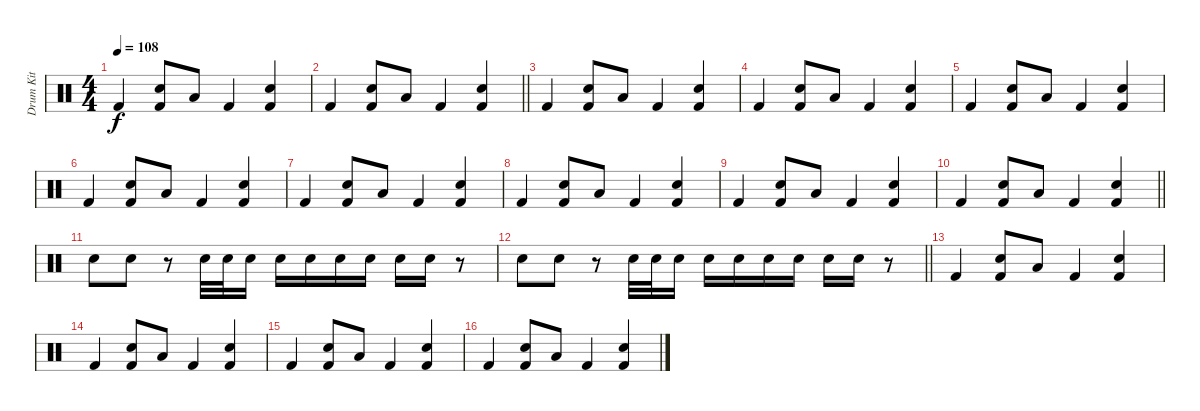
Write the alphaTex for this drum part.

\track ("Drum Kit" "Drum Kit") {instrument percussion}
\staff {score}
\articulation defaults
\ts (4 4)
\tempo 108
\clef neutral
\ks c "Kick (hit) 2".4{dy f}
("Electric Snare (hit)" "Kick (hit) 2").8 "Low Floor Tom (hit)".8 "Kick (hit) 2".4 ("Electric Snare (hit)" "Kick (hit) 2").4 |
\barLineRight lightlight "Kick (hit) 2".4
("Electric Snare (hit)" "Kick (hit) 2").8 "Low Floor Tom (hit)".8 "Kick (hit) 2".4 ("Electric Snare (hit)" "Kick (hit) 2").4 |
\section ("" "")
"Kick (hit) 2".4 ("Electric Snare (hit)" "Kick (hit) 2").8 "Low Floor Tom (hit)".8 "Kick (hit) 2".4 ("Electric Snare (hit)" "Kick (hit) 2").4 |
"Kick (hit) 2".4 ("Electric Snare (hit)" "Kick (hit) 2").8 "Low Floor Tom (hit)".8 "Kick (hit) 2".4 ("Electric Snare (hit)" "Kick (hit) 2").4 |
"Kick (hit) 2".4 ("Electric Snare (hit)" "Kick (hit) 2").8 "Low Floor Tom (hit)".8 "Kick (hit) 2".4 ("Electric Snare (hit)" "Kick (hit) 2").4 |
"Kick (hit) 2".4 ("Electric Snare (hit)" "Kick (hit) 2").8 "Low Floor Tom (hit)".8 "Kick (hit) 2".4 ("Electric Snare (hit)" "Kick (hit) 2").4 |
"Kick (hit) 2".4 ("Electric Snare (hit)" "Kick (hit) 2").8 "Low Floor Tom (hit)".8 "Kick (hit) 2".4 ("Electric Snare (hit)" "Kick (hit) 2").4 |
"Kick (hit) 2".4 ("Electric Snare (hit)" "Kick (hit) 2").8 "Low Floor Tom (hit)".8 "Kick (hit) 2".4 ("Electric Snare (hit)" "Kick (hit) 2").4 |
"Kick (hit) 2".4 ("Electric Snare (hit)" "Kick (hit) 2").8 "Low Floor Tom (hit)".8 "Kick (hit) 2".4 ("Electric Snare (hit)" "Kick (hit) 2").4 |
\barLineRight lightlight "Kick (hit) 2".4
("Electric Snare (hit)" "Kick (hit) 2").8 "Low Floor Tom (hit)".8 "Kick (hit) 2".4 ("Electric Snare (hit)" "Kick (hit) 2").4 |
\section ("" "")
"Snare (hit) 2".8 "Snare (hit) 2".8 r.8 "Electric Snare (hit)".32 "Electric Snare (hit)".32 "Electric Snare (hit)".16 "Electric Snare (hit)".16 "Electric Snare (hit)".16 "Electric Snare (hit)".16 "Electric Snare (hit)".16 "Electric Snare (hit)".16 "Electric Snare (hit)".16 r.8 |
\barLineRight lightlight "Snare (hit) 2".8 "Snare (hit) 2".8
r.8 "Electric Snare (hit)".32 "Electric Snare (hit)".32 "Electric Snare (hit)".16 "Electric Snare (hit)".16 "Electric Snare (hit)".16 "Electric Snare (hit)".16 "Electric Snare (hit)".16 "Electric Snare (hit)".16 "Electric Snare (hit)".16 r.8 |
\section ("" "")
"Kick (hit) 2".4 ("Electric Snare (hit)" "Kick (hit) 2").8 "Low Floor Tom (hit)".8 "Kick (hit) 2".4 ("Electric Snare (hit)" "Kick (hit) 2").4 |
"Kick (hit) 2".4 ("Electric Snare (hit)" "Kick (hit) 2").8 "Low Floor Tom (hit)".8 "Kick (hit) 2".4 ("Electric Snare (hit)" "Kick (hit) 2").4 |
"Kick (hit) 2".4 ("Electric Snare (hit)" "Kick (hit) 2").8 "Low Floor Tom (hit)".8 "Kick (hit) 2".4 ("Electric Snare (hit)" "Kick (hit) 2").4 |
"Kick (hit) 2".4 ("Electric Snare (hit)" "Kick (hit) 2").8 "Low Floor Tom (hit)".8 "Kick (hit) 2".4 ("Electric Snare (hit)" "Kick (hit) 2").4
